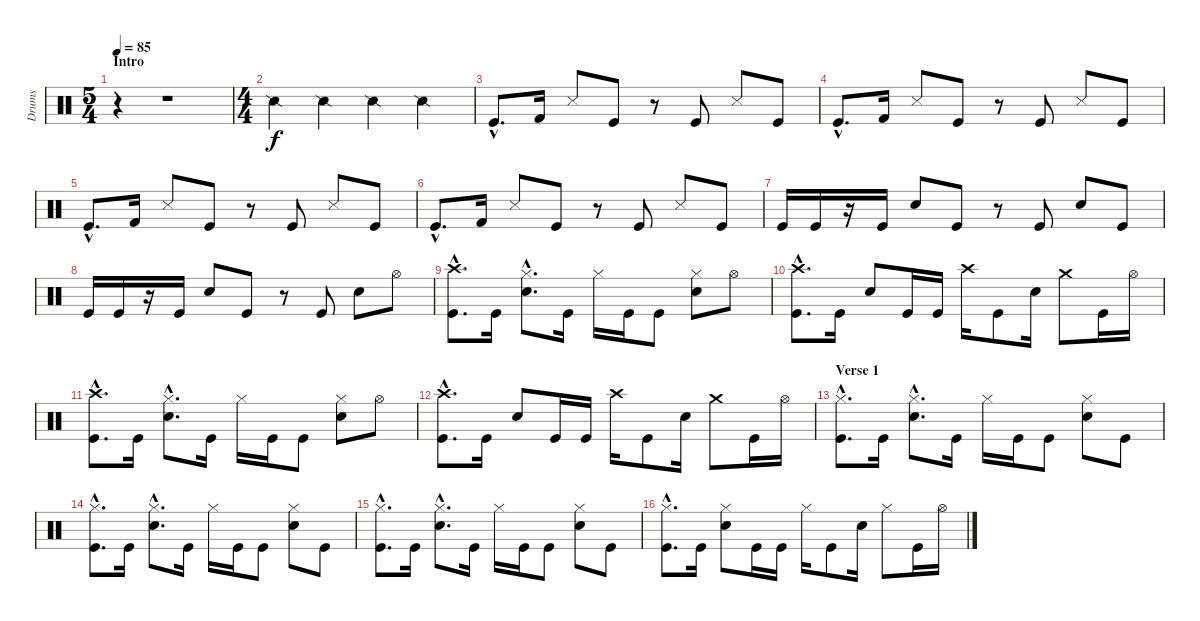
\track ("Drums" "Drums") {instrument percussion}
\staff {score}
\articulation defaults
\ts (5 4)
\section ("" "Intro")
\tempo 85
\clef neutral
\ks c
r.4{dy f} r.1 |
\ts (4 4)
"Snare (side stick) 2".4 "Snare (side stick) 2".4 "Snare (side stick) 2".4 "Snare (side stick) 2".4 |
"Kick (hit)"{hac}.8{d} "Kick (hit) 2".16 "Snare (side stick) 3".8 "Kick (hit)".8 r.8 "Kick (hit)".8 "Snare (side stick) 3".8 "Kick (hit)".8 |
"Kick (hit)"{hac}.8{d} "Kick (hit) 2".16 "Snare (side stick) 3".8 "Kick (hit)".8 r.8 "Kick (hit)".8 "Snare (side stick) 3".8 "Kick (hit)".8 |
"Kick (hit)"{hac}.8{d} "Kick (hit) 2".16 "Snare (side stick) 3".8 "Kick (hit)".8 r.8 "Kick (hit)".8 "Snare (side stick) 3".8 "Kick (hit)".8 |
"Kick (hit)"{hac}.8{d} "Kick (hit) 2".16 "Snare (side stick) 3".8 "Kick (hit)".8 r.8 "Kick (hit)".8 "Snare (side stick) 3".8 "Kick (hit)".8 |
"Kick (hit)".16 "Kick (hit)".16 r.16 "Kick (hit)".16 "Electric Snare (hit)".8 "Kick (hit)".8 r.8 "Kick (hit)".8 "Electric Snare (hit)".8 "Kick (hit)".8 |
"Kick (hit)".16 "Kick (hit)".16 r.16 "Kick (hit)".16 "Electric Snare (hit)".8 "Kick (hit)".8 r.8 "Kick (hit)".8 "Electric Snare (hit)".8 "Hi-Hat (open)".8 |
("Crash high (hit)"{hac} "Kick (hit)"{hac}).8{d} "Kick (hit)".16 ("Hi-Hat (closed)"{hac} "Electric Snare (hit)"{hac}).8{d} "Kick (hit)".16 "Hi-Hat (closed)".16 "Kick (hit)".16 "Kick (hit)".8 ("Hi-Hat (closed)" "Electric Snare (hit)").8 "Hi-Hat (open)".8 |
("Crash high (hit)"{hac} "Kick (hit)"{hac}).8{d} "Kick (hit)".16 "Electric Snare (hit)".8 "Kick (hit)".16 "Kick (hit)".16 "Crash high (hit)".16 "Kick (hit)".8 "Electric Snare (hit)".16 "Crash medium (hit)".8 "Kick (hit)".16 "Hi-Hat (open)".16 |
("Crash high (hit)"{hac} "Kick (hit)"{hac}).8{d} "Kick (hit)".16 ("Hi-Hat (closed)"{hac} "Electric Snare (hit)"{hac}).8{d} "Kick (hit)".16 "Hi-Hat (closed)".16 "Kick (hit)".16 "Kick (hit)".8 ("Hi-Hat (closed)" "Electric Snare (hit)").8 "Hi-Hat (open)".8 |
("Crash high (hit)"{hac} "Kick (hit)"{hac}).8{d} "Kick (hit)".16 "Electric Snare (hit)".8 "Kick (hit)".16 "Kick (hit)".16 "Crash high (hit)".16 "Kick (hit)".8 "Electric Snare (hit)".16 "Crash medium (hit)".8 "Kick (hit)".16 "Hi-Hat (open)".16 |
\section ("" "Verse 1")
("Hi-Hat (closed)"{hac} "Kick (hit)"{hac}).8{d} "Kick (hit)".16 ("Hi-Hat (closed)"{hac} "Electric Snare (hit)"{hac}).8{d} "Kick (hit)".16 "Hi-Hat (closed)".16 "Kick (hit)".16 "Kick (hit)".8 ("Hi-Hat (closed)" "Electric Snare (hit)").8 "Kick (hit)".8 |
("Hi-Hat (closed)"{hac} "Kick (hit)"{hac}).8{d} "Kick (hit)".16 ("Hi-Hat (closed)"{hac} "Electric Snare (hit)"{hac}).8{d} "Kick (hit)".16 "Hi-Hat (closed)".16 "Kick (hit)".16 "Kick (hit)".8 ("Hi-Hat (closed)" "Electric Snare (hit)").8 "Kick (hit)".8 |
("Hi-Hat (closed)"{hac} "Kick (hit)"{hac}).8{d} "Kick (hit)".16 ("Hi-Hat (closed)"{hac} "Electric Snare (hit)"{hac}).8{d} "Kick (hit)".16 "Hi-Hat (closed)".16 "Kick (hit)".16 "Kick (hit)".8 ("Hi-Hat (closed)" "Electric Snare (hit)").8 "Kick (hit)".8 |
("Hi-Hat (closed)"{hac} "Kick (hit)"{hac}).8{d} "Kick (hit)".16 ("Hi-Hat (closed)" "Electric Snare (hit)").8 "Kick (hit)".16 "Kick (hit)".16 "Hi-Hat (closed)".16 "Kick (hit)".8 "Electric Snare (hit)".16 "Hi-Hat (closed)".8 "Kick (hit)".16 "Hi-Hat (open)".16
